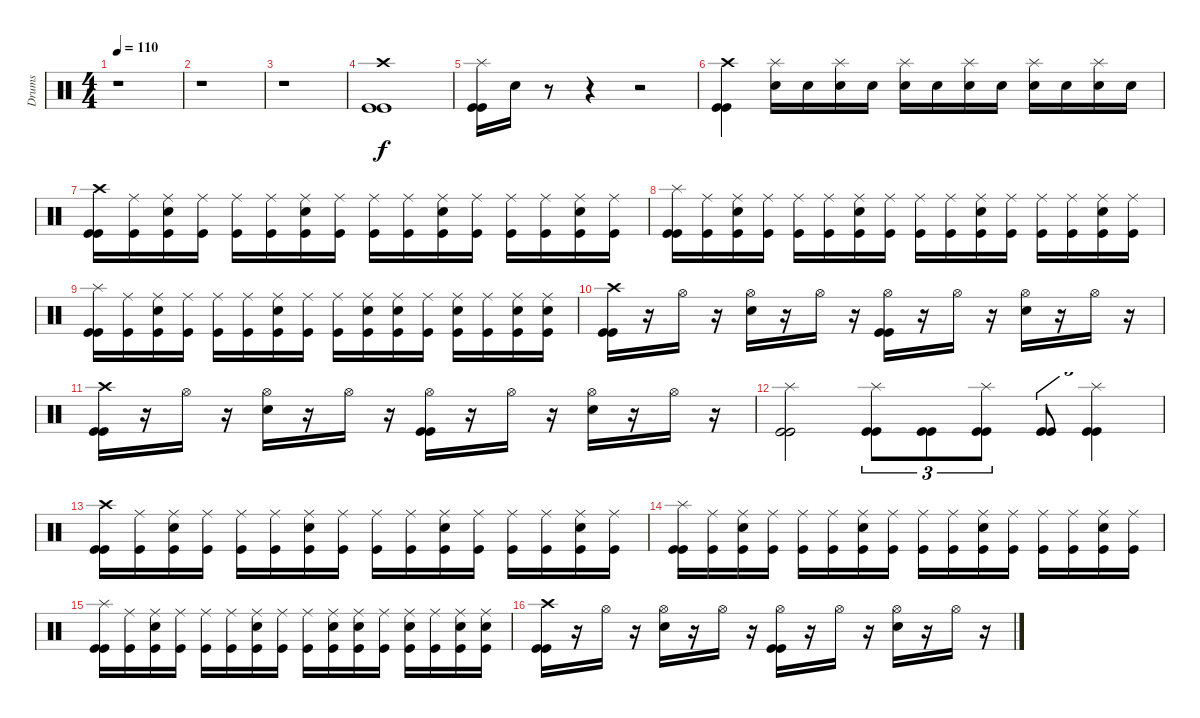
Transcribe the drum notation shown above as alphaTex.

\track ("Drums" "Drums") {instrument percussion}
\staff {score}
\articulation defaults
\ts (4 4)
\tempo 110
\clef neutral
\ks c
r.1{dy f} |
r.1 |
r.1 |
("Crash high (hit)" "Kick (hit)" "Kick (hit)").1 |
("Splash (hit)" "Kick (hit)" "Kick (hit)").16 "Snare (hit) 2".16 r.8 r.4 r.2 |
("Crash high (hit)" "Kick (hit)" "Kick (hit)").4 ("Splash (hit)" "Snare (hit) 2").16 "Snare (hit) 2".16 ("Splash (hit)" "Snare (hit) 2").16 "Snare (hit) 2".16 ("Splash (hit)" "Snare (hit) 2").16 "Snare (hit) 2".16 ("Splash (hit)" "Snare (hit) 2").16 "Snare (hit) 2".16 ("Splash (hit)" "Snare (hit) 2").16 "Snare (hit) 2".16 ("Splash (hit)" "Snare (hit) 2").16 "Snare (hit) 2".16 |
("Crash high (hit)" "Kick (hit)" "Kick (hit)").16 ("Ride (middle)" "Kick (hit)").16 ("Ride (middle)" "Snare (hit) 2" "Kick (hit)").16 ("Ride (middle)" "Kick (hit)").16 ("Ride (middle)" "Kick (hit)").16 ("Ride (middle)" "Kick (hit)").16 ("Ride (middle)" "Snare (hit) 2" "Kick (hit)").16 ("Ride (middle)" "Kick (hit)").16 ("Ride (middle)" "Kick (hit)").16 ("Ride (middle)" "Kick (hit)").16 ("Ride (middle)" "Snare (hit) 2" "Kick (hit)").16 ("Ride (middle)" "Kick (hit)").16 ("Ride (middle)" "Kick (hit)").16 ("Ride (middle)" "Kick (hit)").16 ("Ride (middle)" "Snare (hit) 2" "Kick (hit)").16 ("Ride (middle)" "Kick (hit)").16 |
("Splash (hit)" "Kick (hit)" "Kick (hit)").16 ("Ride (middle)" "Kick (hit)").16 ("Ride (middle)" "Snare (hit) 2" "Kick (hit)").16 ("Ride (middle)" "Kick (hit)").16 ("Ride (middle)" "Kick (hit)").16 ("Ride (middle)" "Kick (hit)").16 ("Ride (middle)" "Snare (hit) 2" "Kick (hit)").16 ("Ride (middle)" "Kick (hit)").16 ("Ride (middle)" "Kick (hit)").16 ("Ride (middle)" "Kick (hit)").16 ("Ride (middle)" "Snare (hit) 2" "Kick (hit)").16 ("Ride (middle)" "Kick (hit)").16 ("Ride (middle)" "Kick (hit)").16 ("Ride (middle)" "Kick (hit)").16 ("Ride (middle)" "Snare (hit) 2" "Kick (hit)").16 ("Ride (middle)" "Kick (hit)").16 |
("Splash (hit)" "Kick (hit)" "Kick (hit)").16 ("Ride (middle)" "Kick (hit)").16 ("Ride (middle)" "Snare (hit) 2" "Kick (hit)").16 ("Ride (middle)" "Kick (hit)").16 ("Ride (middle)" "Kick (hit)").16 ("Ride (middle)" "Kick (hit)").16 ("Ride (middle)" "Snare (hit) 2" "Kick (hit)").16 ("Ride (middle)" "Kick (hit)").16 ("Ride (middle)" "Kick (hit)").16 ("Ride (middle)" "Snare (hit) 2" "Kick (hit)").16 ("Ride (middle)" "Snare (hit) 2" "Kick (hit)").16 ("Ride (middle)" "Kick (hit)").16 ("Ride (middle)" "Snare (hit) 2" "Kick (hit)").16 ("Ride (middle)" "Kick (hit)").16 ("Ride (middle)" "Snare (hit) 2" "Kick (hit)").16 ("Ride (middle)" "Snare (hit) 2" "Kick (hit)").16 |
("Crash high (hit)" "Kick (hit)" "Kick (hit)").16 r.16 "Hi-Hat (open)".16 r.16 ("Hi-Hat (open)" "Snare (hit) 2").16 r.16 "Hi-Hat (open)".16 r.16 ("Hi-Hat (open)" "Kick (hit)" "Kick (hit)").16 r.16 "Hi-Hat (open)".16 r.16 ("Hi-Hat (open)" "Snare (hit) 2").16 r.16 "Hi-Hat (open)".16 r.16 |
("Crash high (hit)" "Kick (hit)" "Kick (hit)").16 r.16 "Hi-Hat (open)".16 r.16 ("Hi-Hat (open)" "Snare (hit) 2").16 r.16 "Hi-Hat (open)".16 r.16 ("Hi-Hat (open)" "Kick (hit)" "Kick (hit)").16 r.16 "Hi-Hat (open)".16 r.16 ("Hi-Hat (open)" "Snare (hit) 2").16 r.16 "Hi-Hat (open)".16 r.16 |
("Splash (hit)" "Kick (hit)" "Kick (hit)").2 ("Splash (hit)" "Kick (hit)" "Kick (hit)").8{tu (3 2)} ("Kick (hit)" "Kick (hit)").8{tu (3 2)} ("Splash (hit)" "Kick (hit)" "Kick (hit)").8{tu (3 2)} ("Kick (hit)" "Kick (hit)").8{tu (3 2)} ("Splash (hit)" "Kick (hit)" "Kick (hit)").4{tu (3 2)} |
("Crash high (hit)" "Kick (hit)" "Kick (hit)").16 ("Ride (middle)" "Kick (hit)").16 ("Ride (middle)" "Snare (hit) 2" "Kick (hit)").16 ("Ride (middle)" "Kick (hit)").16 ("Ride (middle)" "Kick (hit)").16 ("Ride (middle)" "Kick (hit)").16 ("Ride (middle)" "Snare (hit) 2" "Kick (hit)").16 ("Ride (middle)" "Kick (hit)").16 ("Ride (middle)" "Kick (hit)").16 ("Ride (middle)" "Kick (hit)").16 ("Ride (middle)" "Snare (hit) 2" "Kick (hit)").16 ("Ride (middle)" "Kick (hit)").16 ("Ride (middle)" "Kick (hit)").16 ("Ride (middle)" "Kick (hit)").16 ("Ride (middle)" "Snare (hit) 2" "Kick (hit)").16 ("Ride (middle)" "Kick (hit)").16 |
("Splash (hit)" "Kick (hit)" "Kick (hit)").16 ("Ride (middle)" "Kick (hit)").16 ("Ride (middle)" "Snare (hit) 2" "Kick (hit)").16 ("Ride (middle)" "Kick (hit)").16 ("Ride (middle)" "Kick (hit)").16 ("Ride (middle)" "Kick (hit)").16 ("Ride (middle)" "Snare (hit) 2" "Kick (hit)").16 ("Ride (middle)" "Kick (hit)").16 ("Ride (middle)" "Kick (hit)").16 ("Ride (middle)" "Kick (hit)").16 ("Ride (middle)" "Snare (hit) 2" "Kick (hit)").16 ("Ride (middle)" "Kick (hit)").16 ("Ride (middle)" "Kick (hit)").16 ("Ride (middle)" "Kick (hit)").16 ("Ride (middle)" "Snare (hit) 2" "Kick (hit)").16 ("Ride (middle)" "Kick (hit)").16 |
("Splash (hit)" "Kick (hit)" "Kick (hit)").16 ("Ride (middle)" "Kick (hit)").16 ("Ride (middle)" "Snare (hit) 2" "Kick (hit)").16 ("Ride (middle)" "Kick (hit)").16 ("Ride (middle)" "Kick (hit)").16 ("Ride (middle)" "Kick (hit)").16 ("Ride (middle)" "Snare (hit) 2" "Kick (hit)").16 ("Ride (middle)" "Kick (hit)").16 ("Ride (middle)" "Kick (hit)").16 ("Ride (middle)" "Snare (hit) 2" "Kick (hit)").16 ("Ride (middle)" "Snare (hit) 2" "Kick (hit)").16 ("Ride (middle)" "Kick (hit)").16 ("Ride (middle)" "Snare (hit) 2" "Kick (hit)").16 ("Ride (middle)" "Kick (hit)").16 ("Ride (middle)" "Snare (hit) 2" "Kick (hit)").16 ("Ride (middle)" "Snare (hit) 2" "Kick (hit)").16 |
("Crash high (hit)" "Kick (hit)" "Kick (hit)").16 r.16 "Hi-Hat (open)".16 r.16 ("Hi-Hat (open)" "Snare (hit) 2").16 r.16 "Hi-Hat (open)".16 r.16 ("Hi-Hat (open)" "Kick (hit)" "Kick (hit)").16 r.16 "Hi-Hat (open)".16 r.16 ("Hi-Hat (open)" "Snare (hit) 2").16 r.16 "Hi-Hat (open)".16 r.16
